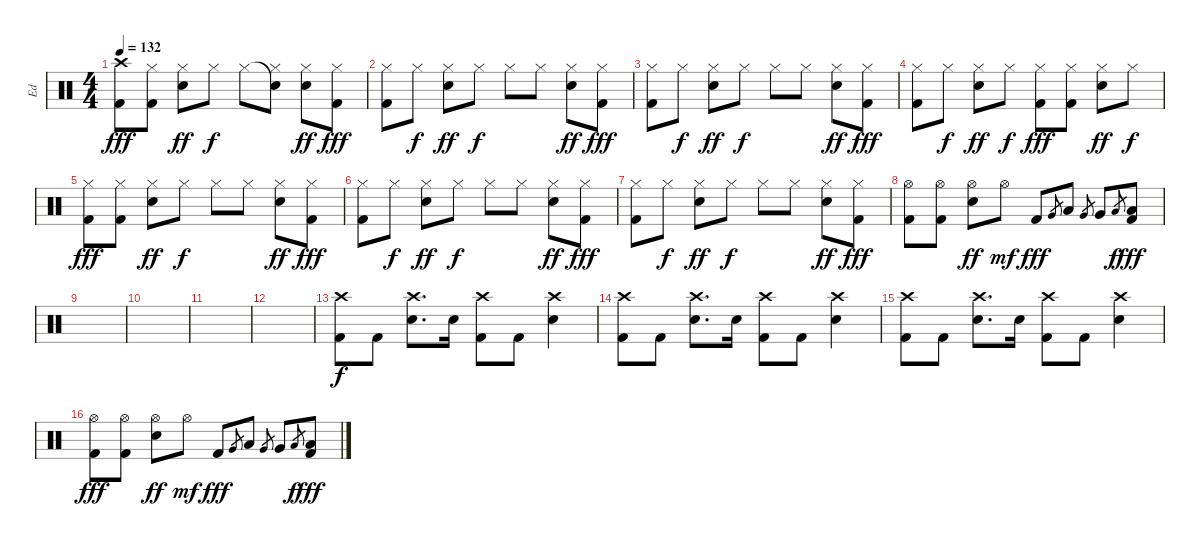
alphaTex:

\track ("Ed" "Ed") {instrument percussion}
\staff {score}
\articulation defaults
\ts (4 4)
\tempo 132
\clef neutral
\ks c
("Crash high (hit)" "Kick (hit) 2").8{dy fff} ("Hi-Hat (closed)" "Kick (hit) 2").8 ("Hi-Hat (closed)" "Electric Snare (hit)").8{dy ff} "Hi-Hat (closed)".8{dy f} "Hi-Hat (closed)".8 ("Snare (hit)"{t} "Hi-Hat (closed)").8 ("Hi-Hat (closed)" "Electric Snare (hit)").8{dy ff} ("Hi-Hat (closed)" "Kick (hit) 2").8{dy fff} |
("Hi-Hat (closed)" "Kick (hit) 2").8 "Hi-Hat (closed)".8{dy f} ("Hi-Hat (closed)" "Electric Snare (hit)").8{dy ff} "Hi-Hat (closed)".8{dy f} "Hi-Hat (closed)".8 "Hi-Hat (closed)".8 ("Hi-Hat (closed)" "Electric Snare (hit)").8{dy ff} ("Hi-Hat (closed)" "Kick (hit) 2").8{dy fff} |
("Hi-Hat (closed)" "Kick (hit) 2").8 "Hi-Hat (closed)".8{dy f} ("Hi-Hat (closed)" "Electric Snare (hit)").8{dy ff} "Hi-Hat (closed)".8{dy f} "Hi-Hat (closed)".8 "Hi-Hat (closed)".8 ("Hi-Hat (closed)" "Electric Snare (hit)").8{dy ff} ("Hi-Hat (closed)" "Kick (hit) 2").8{dy fff} |
("Hi-Hat (closed)" "Kick (hit) 2").8 "Hi-Hat (closed)".8{dy f} ("Hi-Hat (closed)" "Electric Snare (hit)").8{dy ff} "Hi-Hat (closed)".8{dy f} ("Hi-Hat (closed)" "Kick (hit) 2").8{dy fff} ("Hi-Hat (closed)" "Kick (hit) 2").8 ("Hi-Hat (closed)" "Electric Snare (hit)").8{dy ff} "Hi-Hat (closed)".8{dy f} |
("Hi-Hat (closed)" "Kick (hit) 2").8{dy fff} ("Hi-Hat (closed)" "Kick (hit) 2").8 ("Hi-Hat (closed)" "Electric Snare (hit)").8{dy ff} "Hi-Hat (closed)".8{dy f} "Hi-Hat (closed)".8 "Hi-Hat (closed)".8 ("Hi-Hat (closed)" "Electric Snare (hit)").8{dy ff} ("Hi-Hat (closed)" "Kick (hit) 2").8{dy fff} |
("Hi-Hat (closed)" "Kick (hit) 2").8 "Hi-Hat (closed)".8{dy f} ("Hi-Hat (closed)" "Electric Snare (hit)").8{dy ff} "Hi-Hat (closed)".8{dy f} "Hi-Hat (closed)".8 "Hi-Hat (closed)".8 ("Hi-Hat (closed)" "Electric Snare (hit)").8{dy ff} ("Hi-Hat (closed)" "Kick (hit) 2").8{dy fff} |
("Hi-Hat (closed)" "Kick (hit) 2").8 "Hi-Hat (closed)".8{dy f} ("Hi-Hat (closed)" "Electric Snare (hit)").8{dy ff} "Hi-Hat (closed)".8{dy f} "Hi-Hat (closed)".8 "Hi-Hat (closed)".8 ("Hi-Hat (closed)" "Electric Snare (hit)").8{dy ff} ("Hi-Hat (closed)" "Kick (hit) 2").8{dy fff} |
("Hi-Hat (open)" "Kick (hit) 2").8 ("Hi-Hat (open)" "Kick (hit) 2").8 ("Hi-Hat (open)" "Electric Snare (hit)").8{dy ff} "Hi-Hat (open)".8{dy mf} "Kick (hit) 2".8{dy fff} "Very Low Tom (hit)".8{gr} "Low Tom (hit)".8 "Very Low Tom (hit)".8{gr} "Very Low Tom (hit)".8 "Low Floor Tom (hit)".8{gr dy f} ("Low Floor Tom (hit)" "Kick (hit) 2").8{dy fff} |
|
|
|
|
("Crash high (hit)" "Kick (hit) 2").8{dy f} "Kick (hit) 2".8 ("Crash high (hit)" "Snare (hit) 2").8{d} "Snare (hit) 2".16 ("Crash high (hit)" "Kick (hit) 2").8 "Kick (hit) 2".8 ("Crash high (hit)" "Snare (hit) 2").4 |
("Crash high (hit)" "Kick (hit) 2").8 "Kick (hit) 2".8 ("Crash high (hit)" "Snare (hit) 2").8{d} "Snare (hit) 2".16 ("Crash high (hit)" "Kick (hit) 2").8 "Kick (hit) 2".8 ("Crash high (hit)" "Snare (hit) 2").4 |
("Crash high (hit)" "Kick (hit) 2").8 "Kick (hit) 2".8 ("Crash high (hit)" "Snare (hit) 2").8{d} "Snare (hit) 2".16 ("Crash high (hit)" "Kick (hit) 2").8 "Kick (hit) 2".8 ("Crash high (hit)" "Snare (hit) 2").4 |
("Hi-Hat (open)" "Kick (hit) 2").8{dy fff} ("Hi-Hat (open)" "Kick (hit) 2").8 ("Hi-Hat (open)" "Electric Snare (hit)").8{dy ff} "Hi-Hat (open)".8{dy mf} "Kick (hit) 2".8{dy fff} "Very Low Tom (hit)".8{gr} "Low Tom (hit)".8 "Very Low Tom (hit)".8{gr} "Very Low Tom (hit)".8 "Low Floor Tom (hit)".8{gr dy f} ("Low Floor Tom (hit)" "Kick (hit) 2").8{dy fff}
